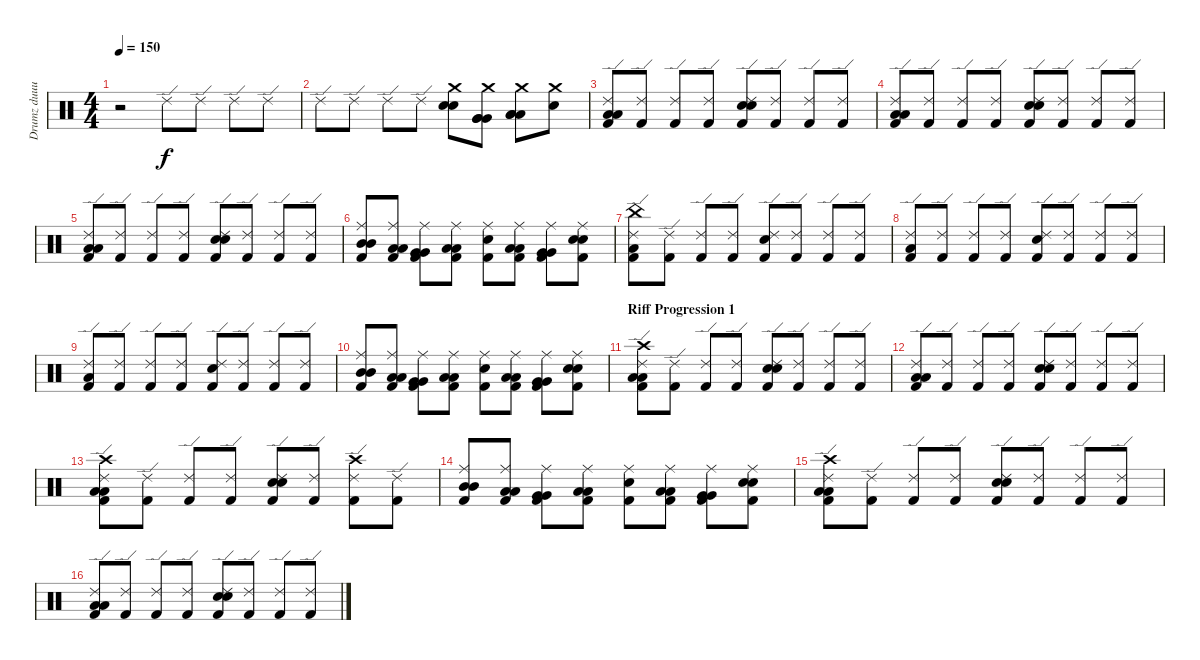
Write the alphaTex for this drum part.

\track ("Drumz duuuuude" "Drumz duuu") {instrument percussion}
\staff {score}
\articulation defaults
\ts (4 4)
\tempo 150
\clef neutral
\ks c
r.2{dy f} "Ride (edge) 2".8 "Ride (edge) 2".8 "Ride (edge) 2".8 "Ride (edge) 2".8 |
"Ride (edge) 2".8 "Ride (edge) 2".8 "Ride (edge) 2".8 "Ride (edge) 2".8 ("Electric Snare (hit)" "Crash medium (hit)" "Electric Snare (hit)").8 ("Very Low Tom (hit)" "Very Low Tom (hit)" "Crash medium (hit)" "Very Low Tom (hit)").8 ("Low Floor Tom (hit)" "Low Floor Tom (hit)" "Crash medium (hit)" "Low Floor Tom (hit)").8 ("Crash medium (hit)" "Snare (hit) 2").8 |
("Kick (hit) 2" "Ride (edge) 2" "Low Floor Tom (hit)" "Low Floor Tom (hit)").8 ("Kick (hit) 2" "Ride (edge) 2").8 ("Kick (hit) 2" "Ride (edge) 2").8 ("Kick (hit) 2" "Ride (edge) 2").8 ("Kick (hit) 2" "Ride (edge) 2" "Snare (hit) 2" "Snare (hit) 2").8 ("Kick (hit) 2" "Ride (edge) 2").8 ("Kick (hit) 2" "Ride (edge) 2").8 ("Kick (hit) 2" "Ride (edge) 2").8 |
("Kick (hit) 2" "Ride (edge) 2" "Low Floor Tom (hit)" "Low Floor Tom (hit)").8 ("Kick (hit) 2" "Ride (edge) 2").8 ("Kick (hit) 2" "Ride (edge) 2").8 ("Kick (hit) 2" "Ride (edge) 2").8 ("Kick (hit) 2" "Ride (edge) 2" "Snare (hit) 2" "Snare (hit) 2").8 ("Kick (hit) 2" "Ride (edge) 2").8 ("Kick (hit) 2" "Ride (edge) 2").8 ("Kick (hit) 2" "Ride (edge) 2").8 |
("Kick (hit) 2" "Ride (edge) 2" "Low Floor Tom (hit)" "Low Floor Tom (hit)").8 ("Kick (hit) 2" "Ride (edge) 2").8 ("Kick (hit) 2" "Ride (edge) 2").8 ("Kick (hit) 2" "Ride (edge) 2").8 ("Kick (hit) 2" "Ride (edge) 2" "Snare (hit) 2" "Snare (hit) 2").8 ("Kick (hit) 2" "Ride (edge) 2").8 ("Kick (hit) 2" "Ride (edge) 2").8 ("Kick (hit) 2" "Ride (edge) 2").8 |
("Kick (hit) 2" "Ride (middle)" "Mid Tom (hit)" "Mid Tom (hit)").8 ("Kick (hit) 2" "Ride (middle)" "Low Tom (hit)" "Low Tom (hit)").8 ("Kick (hit) 2" "Ride (middle)" "Very Low Tom (hit)" "Very Low Tom (hit)").8 ("Kick (hit) 2" "Ride (middle)" "Low Floor Tom (hit)" "Low Floor Tom (hit)").8 ("Kick (hit) 2" "Ride (middle)" "Snare (hit) 2").8 ("Kick (hit) 2" "Ride (middle)" "Low Floor Tom (hit)" "Low Floor Tom (hit)").8 ("Kick (hit) 2" "Ride (middle)" "Very Low Tom (hit)" "Very Low Tom (hit)").8 ("Kick (hit) 2" "Ride (middle)" "Snare (hit) 2" "Snare (hit) 2").8 |
("Kick (hit) 2" "Ride (edge) 2" "China (hit)" "Low Floor Tom (hit)").8 ("Kick (hit) 2" "Ride (edge) 2").8 ("Kick (hit) 2" "Ride (edge) 2").8 ("Kick (hit) 2" "Ride (edge) 2").8 ("Kick (hit) 2" "Ride (edge) 2" "Snare (hit) 2").8 ("Kick (hit) 2" "Ride (edge) 2").8 ("Kick (hit) 2" "Ride (edge) 2").8 ("Kick (hit) 2" "Ride (edge) 2").8 |
("Kick (hit) 2" "Ride (edge) 2" "Low Floor Tom (hit)").8 ("Kick (hit) 2" "Ride (edge) 2").8 ("Kick (hit) 2" "Ride (edge) 2").8 ("Kick (hit) 2" "Ride (edge) 2").8 ("Kick (hit) 2" "Ride (edge) 2" "Snare (hit) 2").8 ("Kick (hit) 2" "Ride (edge) 2").8 ("Kick (hit) 2" "Ride (edge) 2").8 ("Kick (hit) 2" "Ride (edge) 2").8 |
("Kick (hit) 2" "Ride (edge) 2" "Low Floor Tom (hit)").8 ("Kick (hit) 2" "Ride (edge) 2").8 ("Kick (hit) 2" "Ride (edge) 2").8 ("Kick (hit) 2" "Ride (edge) 2").8 ("Kick (hit) 2" "Ride (edge) 2" "Snare (hit) 2").8 ("Kick (hit) 2" "Ride (edge) 2").8 ("Kick (hit) 2" "Ride (edge) 2").8 ("Kick (hit) 2" "Ride (edge) 2").8 |
("Kick (hit) 2" "Ride (middle)" "Mid Tom (hit)" "Mid Tom (hit)").8 ("Kick (hit) 2" "Ride (middle)" "Low Tom (hit)" "Low Tom (hit)").8 ("Kick (hit) 2" "Ride (middle)" "Very Low Tom (hit)" "Very Low Tom (hit)").8 ("Kick (hit) 2" "Ride (middle)" "Low Floor Tom (hit)" "Low Floor Tom (hit)").8 ("Kick (hit) 2" "Ride (middle)" "Snare (hit) 2").8 ("Kick (hit) 2" "Ride (middle)" "Low Floor Tom (hit)" "Low Floor Tom (hit)").8 ("Kick (hit) 2" "Ride (middle)" "Very Low Tom (hit)" "Very Low Tom (hit)").8 ("Kick (hit) 2" "Ride (middle)" "Snare (hit) 2" "Snare (hit) 2").8 |
\section ("" "Riff Progression 1")
("Kick (hit) 2" "Ride (edge) 2" "Crash high (hit)" "Low Floor Tom (hit)" "Low Floor Tom (hit)").8 ("Kick (hit) 2" "Ride (edge) 2").8 ("Kick (hit) 2" "Ride (edge) 2").8 ("Kick (hit) 2" "Ride (edge) 2").8 ("Kick (hit) 2" "Ride (edge) 2" "Snare (hit) 2" "Snare (hit) 2").8 ("Kick (hit) 2" "Ride (edge) 2").8 ("Kick (hit) 2" "Ride (edge) 2").8 ("Kick (hit) 2" "Ride (edge) 2").8 |
("Kick (hit) 2" "Ride (edge) 2" "Low Floor Tom (hit)" "Low Floor Tom (hit)").8 ("Kick (hit) 2" "Ride (edge) 2").8 ("Kick (hit) 2" "Ride (edge) 2").8 ("Kick (hit) 2" "Ride (edge) 2").8 ("Kick (hit) 2" "Ride (edge) 2" "Snare (hit) 2" "Snare (hit) 2").8 ("Kick (hit) 2" "Ride (edge) 2").8 ("Kick (hit) 2" "Ride (edge) 2").8 ("Kick (hit) 2" "Ride (edge) 2").8 |
("Kick (hit) 2" "Ride (edge) 2" "Crash high (hit)" "Low Floor Tom (hit)" "Low Floor Tom (hit)").8 ("Kick (hit) 2" "Ride (edge) 2").8 ("Kick (hit) 2" "Ride (edge) 2").8 ("Kick (hit) 2" "Ride (edge) 2").8 ("Kick (hit) 2" "Ride (edge) 2" "Snare (hit) 2" "Snare (hit) 2").8 ("Kick (hit) 2" "Ride (edge) 2").8 ("Kick (hit) 2" "Ride (edge) 2" "Crash high (hit)").8 ("Kick (hit) 2" "Ride (edge) 2").8 |
("Kick (hit) 2" "Ride (middle)" "Mid Tom (hit)" "Mid Tom (hit)").8 ("Kick (hit) 2" "Ride (middle)" "Low Tom (hit)" "Low Tom (hit)").8 ("Kick (hit) 2" "Ride (middle)" "Very Low Tom (hit)" "Very Low Tom (hit)").8 ("Kick (hit) 2" "Ride (middle)" "Low Floor Tom (hit)" "Low Floor Tom (hit)").8 ("Kick (hit) 2" "Ride (middle)" "Snare (hit) 2").8 ("Kick (hit) 2" "Ride (middle)" "Low Floor Tom (hit)" "Low Floor Tom (hit)").8 ("Kick (hit) 2" "Ride (middle)" "Very Low Tom (hit)" "Very Low Tom (hit)").8 ("Kick (hit) 2" "Ride (middle)" "Snare (hit) 2" "Snare (hit) 2").8 |
("Kick (hit) 2" "Ride (edge) 2" "Crash high (hit)" "Low Floor Tom (hit)" "Low Floor Tom (hit)").8 ("Kick (hit) 2" "Ride (edge) 2").8 ("Kick (hit) 2" "Ride (edge) 2").8 ("Kick (hit) 2" "Ride (edge) 2").8 ("Kick (hit) 2" "Ride (edge) 2" "Snare (hit) 2" "Snare (hit) 2").8 ("Kick (hit) 2" "Ride (edge) 2").8 ("Kick (hit) 2" "Ride (edge) 2").8 ("Kick (hit) 2" "Ride (edge) 2").8 |
("Kick (hit) 2" "Ride (edge) 2" "Low Floor Tom (hit)" "Low Floor Tom (hit)").8 ("Kick (hit) 2" "Ride (edge) 2").8 ("Kick (hit) 2" "Ride (edge) 2").8 ("Kick (hit) 2" "Ride (edge) 2").8 ("Kick (hit) 2" "Ride (edge) 2" "Snare (hit) 2" "Snare (hit) 2").8 ("Kick (hit) 2" "Ride (edge) 2").8 ("Kick (hit) 2" "Ride (edge) 2").8 ("Kick (hit) 2" "Ride (edge) 2").8
